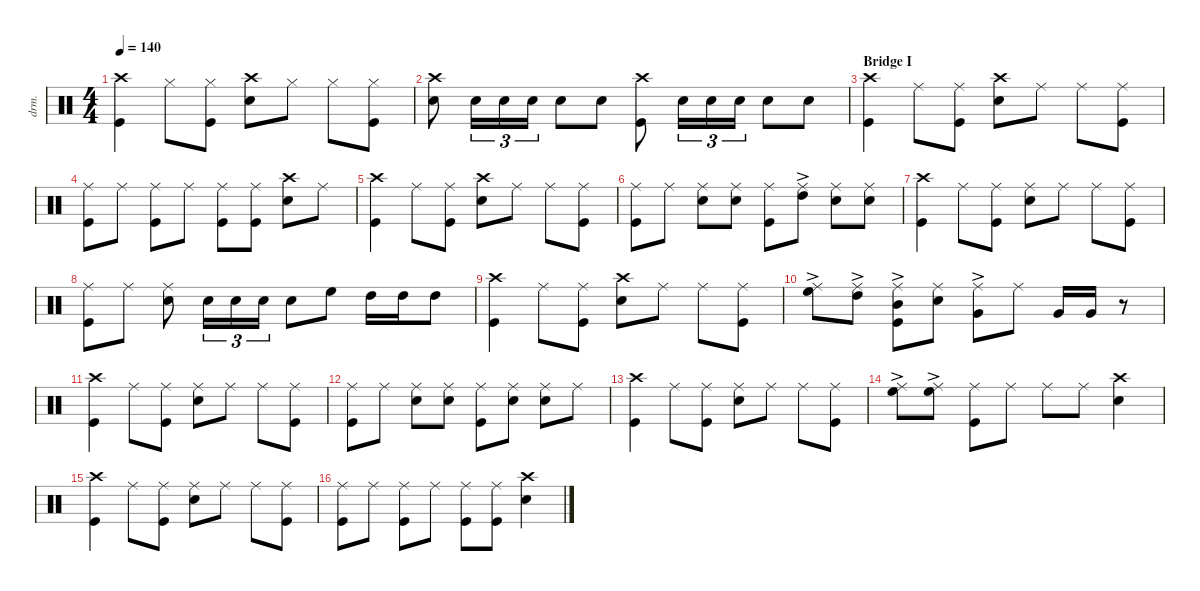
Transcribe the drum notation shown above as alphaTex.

\defaultSystemsLayout 4
\hideDynamics
\bracketExtendMode nobrackets
\otherSystemsTrackNameOrientation horizontal
\track ("Drums" "drm.") {multiBarRest instrument percussion}
\staff
\articulation defaults
\ts (4 4)
\tempo 140
\clef neutral
\ks c
("Crash high (hit)" "Kick (hit)").4{dy f} "Hi-Hat (closed)".8 ("Hi-Hat (closed)" "Kick (hit)").8 ("Snare (hit) 2" "Crash high (hit)").8 "Hi-Hat (closed)".8 "Hi-Hat (closed)".8 ("Hi-Hat (closed)" "Kick (hit)").8 |
("Snare (hit) 2" "Crash high (hit)").8 "Snare (hit) 2".16{tu (3 2) dy mf} "Snare (hit) 2".16{tu (3 2)} "Snare (hit) 2".16{tu (3 2)} "Snare (hit) 2".8{dy f} "Snare (hit) 2".8 ("Crash high (hit)" "Kick (hit)").8 "Snare (hit) 2".16{tu (3 2) dy mf} "Snare (hit) 2".16{tu (3 2)} "Snare (hit) 2".16{tu (3 2)} "Snare (hit) 2".8{dy f} "Snare (hit) 2".8 |
\section ("" "Bridge I")
("Crash high (hit)" "Kick (hit)").4 "Ride (middle)".8 ("Ride (middle)" "Kick (hit)").8 ("Snare (hit) 2" "Crash high (hit)").8 "Ride (middle)".8 "Ride (middle)".8 ("Ride (middle)" "Kick (hit)").8 |
("Kick (hit)" "Ride (middle)").8 "Ride (middle)".8 ("Kick (hit)" "Ride (middle)").8 "Ride (middle)".8 ("Kick (hit)" "Ride (middle)").8 ("Ride (middle)" "Kick (hit)").8 ("Snare (hit) 2" "Crash high (hit)").8 "Ride (middle)".8 |
("Crash high (hit)" "Kick (hit)").4 "Ride (middle)".8 ("Ride (middle)" "Kick (hit)").8 ("Snare (hit) 2" "Crash high (hit)").8 "Ride (middle)".8 "Ride (middle)".8 ("Ride (middle)" "Kick (hit)").8 |
("Kick (hit)" "Ride (middle)").8 "Ride (middle)".8 ("Ride (middle)" "Snare (hit) 2").8 ("Ride (middle)" "Snare (hit) 2").8 ("Kick (hit)" "Ride (middle)").8 ("Ride (middle)" "High Tom (hit)"{ac}).8 ("Ride (middle)" "Snare (hit) 2").8 ("Ride (middle)" "Snare (hit) 2").8 |
("Crash high (hit)" "Kick (hit)").4 "Ride (middle)".8 ("Ride (middle)" "Kick (hit)").8 ("Snare (hit) 2" "Ride (middle)").8 "Ride (middle)".8 "Ride (middle)".8 ("Ride (middle)" "Kick (hit)").8 |
("Kick (hit)" "Ride (middle)").8 "Ride (middle)".8 ("Ride (middle)" "Snare (hit) 2").8 "Snare (hit) 2".16{tu (3 2) dy mf} "Snare (hit) 2".16{tu (3 2)} "Snare (hit) 2".16{tu (3 2)} "Snare (hit) 2".8 "High Floor Tom (hit)".8{dy ff} "High Tom (hit)".16 "High Tom (hit)".16 "High Tom (hit)".8 |
("Crash high (hit)" "Kick (hit)").4{dy f} "Ride (middle)".8 ("Ride (middle)" "Kick (hit)").8 ("Snare (hit) 2" "Crash high (hit)").8 "Ride (middle)".8 "Ride (middle)".8 ("Ride (middle)" "Kick (hit)").8 |
("Ride (middle)" "High Floor Tom (hit)"{ac}).8 ("Ride (middle)" "High Tom (hit)"{ac}).8 ("Ride (middle)" "Mid Tom (hit)"{ac} "Kick (hit)").8 ("Ride (middle)" "Snare (hit) 2").8 ("Ride (middle)" "Very Low Tom (hit)"{ac}).8 "Ride (middle)".8 "Very Low Tom (hit)".16{dy ff} "Very Low Tom (hit)".16 r.8 |
("Crash high (hit)" "Kick (hit)").4{dy f} "Ride (middle)".8 ("Ride (middle)" "Kick (hit)").8 ("Snare (hit) 2" "Ride (middle)").8 "Ride (middle)".8 "Ride (middle)".8 ("Ride (middle)" "Kick (hit)").8 |
("Kick (hit)" "Ride (middle)").8 "Ride (middle)".8 ("Ride (middle)" "Snare (hit) 2").8 ("Ride (middle)" "Snare (hit) 2").8 ("Kick (hit)" "Ride (middle)").8 ("Ride (middle)" "Snare (hit) 2").8 ("Ride (middle)" "Snare (hit) 2").8 "Ride (middle)".8 |
("Crash high (hit)" "Kick (hit)").4 "Ride (middle)".8 ("Ride (middle)" "Kick (hit)").8 ("Snare (hit) 2" "Ride (middle)").8 "Ride (middle)".8 "Ride (middle)".8 ("Ride (middle)" "Kick (hit)").8 |
("Ride (middle)" "High Floor Tom (hit)"{ac}).8 ("Ride (middle)" "High Floor Tom (hit)"{ac}).8 ("Ride (middle)" "Kick (hit)").8 "Ride (middle)".8 "Ride (middle)".8 "Ride (middle)".8 ("Snare (hit) 2" "Crash high (hit)").4 |
("Crash high (hit)" "Kick (hit)").4 "Ride (middle)".8 ("Ride (middle)" "Kick (hit)").8 ("Snare (hit) 2" "Ride (middle)").8 "Ride (middle)".8 "Ride (middle)".8 ("Ride (middle)" "Kick (hit)").8 |
("Ride (middle)" "Kick (hit)").8 "Ride (middle)".8 ("Ride (middle)" "Kick (hit)").8 "Ride (middle)".8 ("Ride (middle)" "Kick (hit)").8 ("Ride (middle)" "Kick (hit)").8 ("Snare (hit) 2" "Crash high (hit)").4
